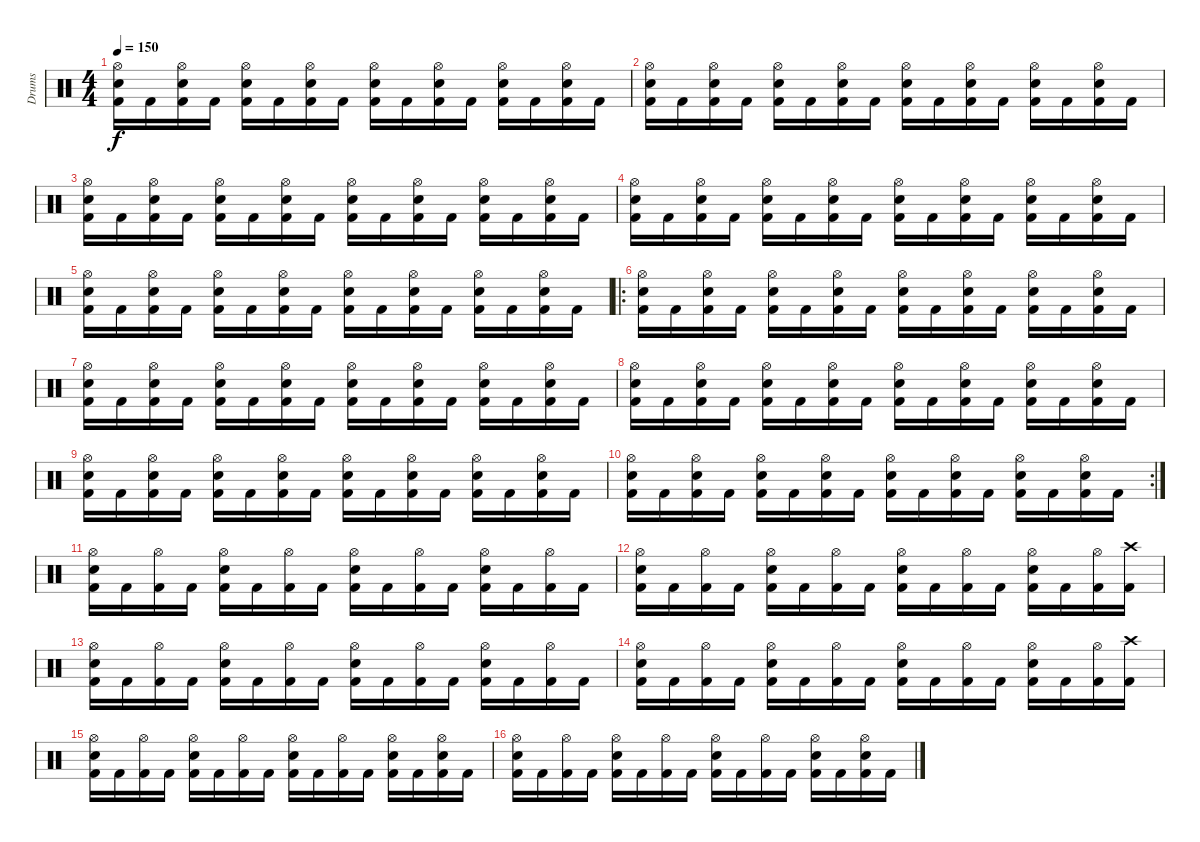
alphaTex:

\track ("Drums" "Drums") {instrument percussion}
\staff {score}
\articulation defaults
\ts (4 4)
\tempo 150
\clef neutral
\ks aminor
("Hi-Hat (open)" "Electric Snare (hit)" "Kick (hit) 2").16{dy f} "Kick (hit) 2".16 ("Hi-Hat (open)" "Electric Snare (hit)" "Kick (hit) 2").16 "Kick (hit) 2".16 ("Hi-Hat (open)" "Electric Snare (hit)" "Kick (hit) 2").16 "Kick (hit) 2".16 ("Hi-Hat (open)" "Electric Snare (hit)" "Kick (hit) 2").16 "Kick (hit) 2".16 ("Hi-Hat (open)" "Electric Snare (hit)" "Kick (hit) 2").16 "Kick (hit) 2".16 ("Hi-Hat (open)" "Electric Snare (hit)" "Kick (hit) 2").16 "Kick (hit) 2".16 ("Hi-Hat (open)" "Electric Snare (hit)" "Kick (hit) 2").16 "Kick (hit) 2".16 ("Hi-Hat (open)" "Electric Snare (hit)" "Kick (hit) 2").16 "Kick (hit) 2".16 |
("Hi-Hat (open)" "Electric Snare (hit)" "Kick (hit) 2").16 "Kick (hit) 2".16 ("Hi-Hat (open)" "Electric Snare (hit)" "Kick (hit) 2").16 "Kick (hit) 2".16 ("Hi-Hat (open)" "Electric Snare (hit)" "Kick (hit) 2").16 "Kick (hit) 2".16 ("Hi-Hat (open)" "Electric Snare (hit)" "Kick (hit) 2").16 "Kick (hit) 2".16 ("Hi-Hat (open)" "Electric Snare (hit)" "Kick (hit) 2").16 "Kick (hit) 2".16 ("Hi-Hat (open)" "Electric Snare (hit)" "Kick (hit) 2").16 "Kick (hit) 2".16 ("Hi-Hat (open)" "Electric Snare (hit)" "Kick (hit) 2").16 "Kick (hit) 2".16 ("Hi-Hat (open)" "Electric Snare (hit)" "Kick (hit) 2").16 "Kick (hit) 2".16 |
("Hi-Hat (open)" "Electric Snare (hit)" "Kick (hit) 2").16 "Kick (hit) 2".16 ("Hi-Hat (open)" "Electric Snare (hit)" "Kick (hit) 2").16 "Kick (hit) 2".16 ("Hi-Hat (open)" "Electric Snare (hit)" "Kick (hit) 2").16 "Kick (hit) 2".16 ("Hi-Hat (open)" "Electric Snare (hit)" "Kick (hit) 2").16 "Kick (hit) 2".16 ("Hi-Hat (open)" "Electric Snare (hit)" "Kick (hit) 2").16 "Kick (hit) 2".16 ("Hi-Hat (open)" "Electric Snare (hit)" "Kick (hit) 2").16 "Kick (hit) 2".16 ("Hi-Hat (open)" "Electric Snare (hit)" "Kick (hit) 2").16 "Kick (hit) 2".16 ("Hi-Hat (open)" "Electric Snare (hit)" "Kick (hit) 2").16 "Kick (hit) 2".16 |
("Hi-Hat (open)" "Electric Snare (hit)" "Kick (hit) 2").16 "Kick (hit) 2".16 ("Hi-Hat (open)" "Electric Snare (hit)" "Kick (hit) 2").16 "Kick (hit) 2".16 ("Hi-Hat (open)" "Electric Snare (hit)" "Kick (hit) 2").16 "Kick (hit) 2".16 ("Hi-Hat (open)" "Electric Snare (hit)" "Kick (hit) 2").16 "Kick (hit) 2".16 ("Hi-Hat (open)" "Electric Snare (hit)" "Kick (hit) 2").16 "Kick (hit) 2".16 ("Hi-Hat (open)" "Electric Snare (hit)" "Kick (hit) 2").16 "Kick (hit) 2".16 ("Hi-Hat (open)" "Electric Snare (hit)" "Kick (hit) 2").16 "Kick (hit) 2".16 ("Hi-Hat (open)" "Electric Snare (hit)" "Kick (hit) 2").16 "Kick (hit) 2".16 |
("Hi-Hat (open)" "Electric Snare (hit)" "Kick (hit) 2").16 "Kick (hit) 2".16 ("Hi-Hat (open)" "Electric Snare (hit)" "Kick (hit) 2").16 "Kick (hit) 2".16 ("Hi-Hat (open)" "Electric Snare (hit)" "Kick (hit) 2").16 "Kick (hit) 2".16 ("Hi-Hat (open)" "Electric Snare (hit)" "Kick (hit) 2").16 "Kick (hit) 2".16 ("Hi-Hat (open)" "Electric Snare (hit)" "Kick (hit) 2").16 "Kick (hit) 2".16 ("Hi-Hat (open)" "Electric Snare (hit)" "Kick (hit) 2").16 "Kick (hit) 2".16 ("Hi-Hat (open)" "Electric Snare (hit)" "Kick (hit) 2").16 "Kick (hit) 2".16 ("Hi-Hat (open)" "Electric Snare (hit)" "Kick (hit) 2").16 "Kick (hit) 2".16 |
\ro
("Hi-Hat (open)" "Electric Snare (hit)" "Kick (hit) 2").16 "Kick (hit) 2".16 ("Hi-Hat (open)" "Electric Snare (hit)" "Kick (hit) 2").16 "Kick (hit) 2".16 ("Hi-Hat (open)" "Electric Snare (hit)" "Kick (hit) 2").16 "Kick (hit) 2".16 ("Hi-Hat (open)" "Electric Snare (hit)" "Kick (hit) 2").16 "Kick (hit) 2".16 ("Hi-Hat (open)" "Electric Snare (hit)" "Kick (hit) 2").16 "Kick (hit) 2".16 ("Hi-Hat (open)" "Electric Snare (hit)" "Kick (hit) 2").16 "Kick (hit) 2".16 ("Hi-Hat (open)" "Electric Snare (hit)" "Kick (hit) 2").16 "Kick (hit) 2".16 ("Hi-Hat (open)" "Electric Snare (hit)" "Kick (hit) 2").16 "Kick (hit) 2".16 |
("Hi-Hat (open)" "Electric Snare (hit)" "Kick (hit) 2").16 "Kick (hit) 2".16 ("Hi-Hat (open)" "Electric Snare (hit)" "Kick (hit) 2").16 "Kick (hit) 2".16 ("Hi-Hat (open)" "Electric Snare (hit)" "Kick (hit) 2").16 "Kick (hit) 2".16 ("Hi-Hat (open)" "Electric Snare (hit)" "Kick (hit) 2").16 "Kick (hit) 2".16 ("Hi-Hat (open)" "Electric Snare (hit)" "Kick (hit) 2").16 "Kick (hit) 2".16 ("Hi-Hat (open)" "Electric Snare (hit)" "Kick (hit) 2").16 "Kick (hit) 2".16 ("Hi-Hat (open)" "Electric Snare (hit)" "Kick (hit) 2").16 "Kick (hit) 2".16 ("Hi-Hat (open)" "Electric Snare (hit)" "Kick (hit) 2").16 "Kick (hit) 2".16 |
("Hi-Hat (open)" "Electric Snare (hit)" "Kick (hit) 2").16 "Kick (hit) 2".16 ("Hi-Hat (open)" "Electric Snare (hit)" "Kick (hit) 2").16 "Kick (hit) 2".16 ("Hi-Hat (open)" "Electric Snare (hit)" "Kick (hit) 2").16 "Kick (hit) 2".16 ("Hi-Hat (open)" "Electric Snare (hit)" "Kick (hit) 2").16 "Kick (hit) 2".16 ("Hi-Hat (open)" "Electric Snare (hit)" "Kick (hit) 2").16 "Kick (hit) 2".16 ("Hi-Hat (open)" "Electric Snare (hit)" "Kick (hit) 2").16 "Kick (hit) 2".16 ("Hi-Hat (open)" "Electric Snare (hit)" "Kick (hit) 2").16 "Kick (hit) 2".16 ("Hi-Hat (open)" "Electric Snare (hit)" "Kick (hit) 2").16 "Kick (hit) 2".16 |
("Hi-Hat (open)" "Electric Snare (hit)" "Kick (hit) 2").16 "Kick (hit) 2".16 ("Hi-Hat (open)" "Electric Snare (hit)" "Kick (hit) 2").16 "Kick (hit) 2".16 ("Hi-Hat (open)" "Electric Snare (hit)" "Kick (hit) 2").16 "Kick (hit) 2".16 ("Hi-Hat (open)" "Electric Snare (hit)" "Kick (hit) 2").16 "Kick (hit) 2".16 ("Hi-Hat (open)" "Electric Snare (hit)" "Kick (hit) 2").16 "Kick (hit) 2".16 ("Hi-Hat (open)" "Electric Snare (hit)" "Kick (hit) 2").16 "Kick (hit) 2".16 ("Hi-Hat (open)" "Electric Snare (hit)" "Kick (hit) 2").16 "Kick (hit) 2".16 ("Hi-Hat (open)" "Electric Snare (hit)" "Kick (hit) 2").16 "Kick (hit) 2".16 |
\rc 2
("Hi-Hat (open)" "Electric Snare (hit)" "Kick (hit) 2").16 "Kick (hit) 2".16 ("Hi-Hat (open)" "Electric Snare (hit)" "Kick (hit) 2").16 "Kick (hit) 2".16 ("Hi-Hat (open)" "Electric Snare (hit)" "Kick (hit) 2").16 "Kick (hit) 2".16 ("Hi-Hat (open)" "Electric Snare (hit)" "Kick (hit) 2").16 "Kick (hit) 2".16 ("Hi-Hat (open)" "Electric Snare (hit)" "Kick (hit) 2").16 "Kick (hit) 2".16 ("Hi-Hat (open)" "Electric Snare (hit)" "Kick (hit) 2").16 "Kick (hit) 2".16 ("Hi-Hat (open)" "Electric Snare (hit)" "Kick (hit) 2").16 "Kick (hit) 2".16 ("Hi-Hat (open)" "Electric Snare (hit)" "Kick (hit) 2").16 "Kick (hit) 2".16 |
("Hi-Hat (open)" "Electric Snare (hit)" "Kick (hit) 2").16 "Kick (hit) 2".16 ("Hi-Hat (open)" "Kick (hit) 2").16 "Kick (hit) 2".16 ("Hi-Hat (open)" "Electric Snare (hit)" "Kick (hit) 2").16 "Kick (hit) 2".16 ("Hi-Hat (open)" "Kick (hit) 2").16 "Kick (hit) 2".16 ("Hi-Hat (open)" "Electric Snare (hit)" "Kick (hit) 2").16 "Kick (hit) 2".16 ("Hi-Hat (open)" "Kick (hit) 2").16 "Kick (hit) 2".16 ("Hi-Hat (open)" "Electric Snare (hit)" "Kick (hit) 2").16 "Kick (hit) 2".16 ("Hi-Hat (open)" "Kick (hit) 2").16 "Kick (hit) 2".16 |
("Hi-Hat (open)" "Electric Snare (hit)" "Kick (hit) 2").16 "Kick (hit) 2".16 ("Hi-Hat (open)" "Kick (hit) 2").16 "Kick (hit) 2".16 ("Hi-Hat (open)" "Electric Snare (hit)" "Kick (hit) 2").16 "Kick (hit) 2".16 ("Hi-Hat (open)" "Kick (hit) 2").16 "Kick (hit) 2".16 ("Hi-Hat (open)" "Electric Snare (hit)" "Kick (hit) 2").16 "Kick (hit) 2".16 ("Hi-Hat (open)" "Kick (hit) 2").16 "Kick (hit) 2".16 ("Hi-Hat (open)" "Electric Snare (hit)" "Kick (hit) 2").16 "Kick (hit) 2".16 ("Hi-Hat (open)" "Kick (hit) 2").16 ("Crash high (hit)" "Kick (hit) 2").16 |
("Hi-Hat (open)" "Electric Snare (hit)" "Kick (hit) 2").16 "Kick (hit) 2".16 ("Hi-Hat (open)" "Kick (hit) 2").16 "Kick (hit) 2".16 ("Hi-Hat (open)" "Electric Snare (hit)" "Kick (hit) 2").16 "Kick (hit) 2".16 ("Hi-Hat (open)" "Kick (hit) 2").16 "Kick (hit) 2".16 ("Hi-Hat (open)" "Electric Snare (hit)" "Kick (hit) 2").16 "Kick (hit) 2".16 ("Hi-Hat (open)" "Kick (hit) 2").16 "Kick (hit) 2".16 ("Hi-Hat (open)" "Electric Snare (hit)" "Kick (hit) 2").16 "Kick (hit) 2".16 ("Hi-Hat (open)" "Kick (hit) 2").16 "Kick (hit) 2".16 |
("Hi-Hat (open)" "Electric Snare (hit)" "Kick (hit) 2").16 "Kick (hit) 2".16 ("Hi-Hat (open)" "Kick (hit) 2").16 "Kick (hit) 2".16 ("Hi-Hat (open)" "Electric Snare (hit)" "Kick (hit) 2").16 "Kick (hit) 2".16 ("Hi-Hat (open)" "Kick (hit) 2").16 "Kick (hit) 2".16 ("Hi-Hat (open)" "Electric Snare (hit)" "Kick (hit) 2").16 "Kick (hit) 2".16 ("Hi-Hat (open)" "Kick (hit) 2").16 "Kick (hit) 2".16 ("Hi-Hat (open)" "Electric Snare (hit)" "Kick (hit) 2").16 "Kick (hit) 2".16 ("Hi-Hat (open)" "Kick (hit) 2").16 ("Crash high (hit)" "Kick (hit) 2").16 |
("Hi-Hat (open)" "Electric Snare (hit)" "Kick (hit) 2").16 "Kick (hit) 2".16 ("Hi-Hat (open)" "Kick (hit) 2").16 "Kick (hit) 2".16 ("Hi-Hat (open)" "Electric Snare (hit)" "Kick (hit) 2").16 "Kick (hit) 2".16 ("Hi-Hat (open)" "Kick (hit) 2").16 "Kick (hit) 2".16 ("Hi-Hat (open)" "Electric Snare (hit)" "Kick (hit) 2").16 "Kick (hit) 2".16 ("Hi-Hat (open)" "Kick (hit) 2").16 "Kick (hit) 2".16 ("Hi-Hat (open)" "Electric Snare (hit)" "Kick (hit) 2").16 "Kick (hit) 2".16 ("Hi-Hat (open)" "Electric Snare (hit)" "Kick (hit) 2").16 "Kick (hit) 2".16 |
("Hi-Hat (open)" "Electric Snare (hit)" "Kick (hit) 2").16 "Kick (hit) 2".16 ("Hi-Hat (open)" "Kick (hit) 2").16 "Kick (hit) 2".16 ("Hi-Hat (open)" "Electric Snare (hit)" "Kick (hit) 2").16 "Kick (hit) 2".16 ("Hi-Hat (open)" "Kick (hit) 2").16 "Kick (hit) 2".16 ("Hi-Hat (open)" "Electric Snare (hit)" "Kick (hit) 2").16 "Kick (hit) 2".16 ("Hi-Hat (open)" "Kick (hit) 2").16 "Kick (hit) 2".16 ("Hi-Hat (open)" "Electric Snare (hit)" "Kick (hit) 2").16 "Kick (hit) 2".16 ("Hi-Hat (open)" "Electric Snare (hit)" "Kick (hit) 2").16 "Kick (hit) 2".16
